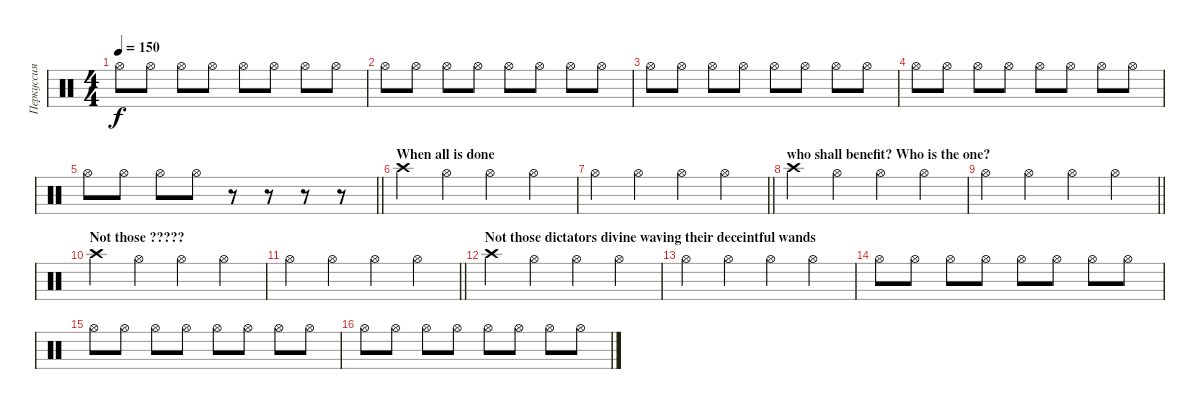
\track ("Перкуссия" "Перкуссия") {instrument percussion}
\staff {score}
\articulation defaults
\ts (4 4)
\tempo 150
\clef neutral
\ks c "Hi-Hat (open)".8{dy f} "Hi-Hat (open)".8 "Hi-Hat (open)".8 "Hi-Hat (open)".8 "Hi-Hat (open)".8 "Hi-Hat (open)".8 "Hi-Hat (open)".8 "Hi-Hat (open)".8
|
"Hi-Hat (open)".8 "Hi-Hat (open)".8 "Hi-Hat (open)".8 "Hi-Hat (open)".8 "Hi-Hat (open)".8 "Hi-Hat (open)".8 "Hi-Hat (open)".8 "Hi-Hat (open)".8 |
"Hi-Hat (open)".8 "Hi-Hat (open)".8 "Hi-Hat (open)".8 "Hi-Hat (open)".8 "Hi-Hat (open)".8 "Hi-Hat (open)".8 "Hi-Hat (open)".8 "Hi-Hat (open)".8 |
"Hi-Hat (open)".8 "Hi-Hat (open)".8 "Hi-Hat (open)".8 "Hi-Hat (open)".8 "Hi-Hat (open)".8 "Hi-Hat (open)".8 "Hi-Hat (open)".8 "Hi-Hat (open)".8 |
\barLineRight lightlight "Hi-Hat (open)".8 "Hi-Hat (open)".8 "Hi-Hat (open)".8 "Hi-Hat (open)".8
r.8 r.8 r.8 r.8 |
\section ("" "When all is done")
"Crash high (hit)".4 "Hi-Hat (open)".4 "Hi-Hat (open)".4 "Hi-Hat (open)".4 |
\barLineRight lightlight "Hi-Hat (open)".4 "Hi-Hat (open)".4 "Hi-Hat (open)".4 "Hi-Hat (open)".4
|
\section ("" "who shall benefit? Who is the one?")
"Crash high (hit)".4 "Hi-Hat (open)".4 "Hi-Hat (open)".4 "Hi-Hat (open)".4 |
\barLineRight lightlight "Hi-Hat (open)".4 "Hi-Hat (open)".4 "Hi-Hat (open)".4 "Hi-Hat (open)".4
|
\section ("" "Not those ?????")
"Crash high (hit)".4 "Hi-Hat (open)".4 "Hi-Hat (open)".4 "Hi-Hat (open)".4 |
\barLineRight lightlight "Hi-Hat (open)".4 "Hi-Hat (open)".4 "Hi-Hat (open)".4 "Hi-Hat (open)".4
|
\section ("" "Not those dictators divine waving their deceintful wands")
"Crash high (hit)".4 "Hi-Hat (open)".4 "Hi-Hat (open)".4 "Hi-Hat (open)".4 |
"Hi-Hat (open)".4 "Hi-Hat (open)".4 "Hi-Hat (open)".4 "Hi-Hat (open)".4 |
"Hi-Hat (open)".8 "Hi-Hat (open)".8 "Hi-Hat (open)".8 "Hi-Hat (open)".8 "Hi-Hat (open)".8 "Hi-Hat (open)".8 "Hi-Hat (open)".8 "Hi-Hat (open)".8 |
"Hi-Hat (open)".8 "Hi-Hat (open)".8 "Hi-Hat (open)".8 "Hi-Hat (open)".8 "Hi-Hat (open)".8 "Hi-Hat (open)".8 "Hi-Hat (open)".8 "Hi-Hat (open)".8 |
"Hi-Hat (open)".8 "Hi-Hat (open)".8 "Hi-Hat (open)".8 "Hi-Hat (open)".8 "Hi-Hat (open)".8 "Hi-Hat (open)".8 "Hi-Hat (open)".8 "Hi-Hat (open)".8
